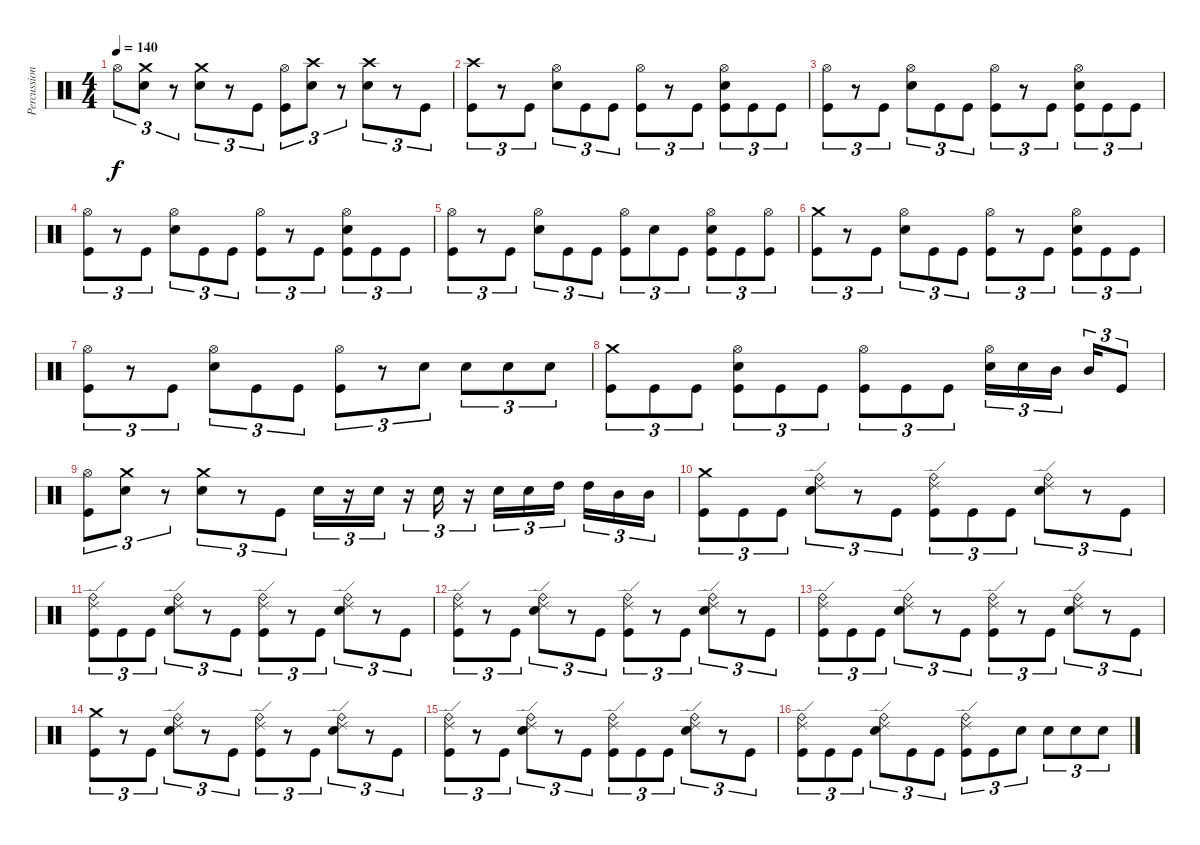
\track ("Percussion" "Percussion") {instrument percussion}
\staff {score}
\articulation defaults
\ts (4 4)
\tempo 140
\clef neutral
\ks c "Hi-Hat (open)".8{tu (3 2) dy f}
("Crash medium (hit)" "Snare (hit) 2").8{tu (3 2)} r.8{tu (3 2)} ("Crash medium (hit)" "Snare (hit) 2").8{tu (3 2)} r.8{tu (3 2)} "Kick (hit)".8{tu (3 2)} ("Hi-Hat (open)" "Kick (hit)").8{tu (3 2)} ("Crash high (hit)" "Snare (hit) 2").8{tu (3 2)} r.8{tu (3 2)} ("Crash high (hit)" "Snare (hit) 2").8{tu (3 2)} r.8{tu (3 2)} "Kick (hit)".8{tu (3 2)} |
("Crash high (hit)" "Kick (hit)").8{tu (3 2)} r.8{tu (3 2)} "Kick (hit)".8{tu (3 2)} ("Hi-Hat (open)" "Snare (hit) 2").8{tu (3 2)} "Kick (hit)".8{tu (3 2)} "Kick (hit)".8{tu (3 2)} ("Hi-Hat (open)" "Kick (hit)").8{tu (3 2)} r.8{tu (3 2)} "Kick (hit)".8{tu (3 2)} ("Hi-Hat (open)" "Snare (hit) 2" "Kick (hit)").8{tu (3 2)} "Kick (hit)".8{tu (3 2)} "Kick (hit)".8{tu (3 2)} |
("Hi-Hat (open)" "Kick (hit)").8{tu (3 2)} r.8{tu (3 2)} "Kick (hit)".8{tu (3 2)} ("Hi-Hat (open)" "Snare (hit) 2").8{tu (3 2)} "Kick (hit)".8{tu (3 2)} "Kick (hit)".8{tu (3 2)} ("Hi-Hat (open)" "Kick (hit)").8{tu (3 2)} r.8{tu (3 2)} "Kick (hit)".8{tu (3 2)} ("Hi-Hat (open)" "Snare (hit) 2" "Kick (hit)").8{tu (3 2)} "Kick (hit)".8{tu (3 2)} "Kick (hit)".8{tu (3 2)} |
("Hi-Hat (open)" "Kick (hit)").8{tu (3 2)} r.8{tu (3 2)} "Kick (hit)".8{tu (3 2)} ("Hi-Hat (open)" "Snare (hit) 2").8{tu (3 2)} "Kick (hit)".8{tu (3 2)} "Kick (hit)".8{tu (3 2)} ("Hi-Hat (open)" "Kick (hit)").8{tu (3 2)} r.8{tu (3 2)} "Kick (hit)".8{tu (3 2)} ("Hi-Hat (open)" "Snare (hit) 2" "Kick (hit)").8{tu (3 2)} "Kick (hit)".8{tu (3 2)} "Kick (hit)".8{tu (3 2)} |
("Hi-Hat (open)" "Kick (hit)").8{tu (3 2)} r.8{tu (3 2)} "Kick (hit)".8{tu (3 2)} ("Hi-Hat (open)" "Snare (hit) 2").8{tu (3 2)} "Kick (hit)".8{tu (3 2)} "Kick (hit)".8{tu (3 2)} ("Hi-Hat (open)" "Kick (hit)").8{tu (3 2)} "Snare (hit) 2".8{tu (3 2)} "Kick (hit)".8{tu (3 2)} ("Hi-Hat (open)" "Snare (hit) 2" "Kick (hit)").8{tu (3 2)} "Kick (hit)".8{tu (3 2)} ("Hi-Hat (open)" "Kick (hit)").8{tu (3 2)} |
("Crash medium (hit)" "Kick (hit)").8{tu (3 2)} r.8{tu (3 2)} "Kick (hit)".8{tu (3 2)} ("Hi-Hat (open)" "Snare (hit) 2").8{tu (3 2)} "Kick (hit)".8{tu (3 2)} "Kick (hit)".8{tu (3 2)} ("Hi-Hat (open)" "Kick (hit)").8{tu (3 2)} r.8{tu (3 2)} "Kick (hit)".8{tu (3 2)} ("Hi-Hat (open)" "Snare (hit) 2" "Kick (hit)").8{tu (3 2)} "Kick (hit)".8{tu (3 2)} "Kick (hit)".8{tu (3 2)} |
("Hi-Hat (open)" "Kick (hit)").8{tu (3 2)} r.8{tu (3 2)} "Kick (hit)".8{tu (3 2)} ("Hi-Hat (open)" "Snare (hit) 2").8{tu (3 2)} "Kick (hit)".8{tu (3 2)} "Kick (hit)".8{tu (3 2)} ("Hi-Hat (open)" "Kick (hit)").8{tu (3 2)} r.8{tu (3 2)} "Snare (hit) 2".8{tu (3 2)} "Snare (hit) 2".8{tu (3 2)} "Snare (hit) 2".8{tu (3 2)} "Snare (hit) 2".8{tu (3 2)} |
("Crash medium (hit)" "Kick (hit)").8{tu (3 2)} "Kick (hit)".8{tu (3 2)} "Kick (hit)".8{tu (3 2)} ("Hi-Hat (open)" "Snare (hit) 2" "Kick (hit)").8{tu (3 2)} "Kick (hit)".8{tu (3 2)} "Kick (hit)".8{tu (3 2)} ("Hi-Hat (open)" "Kick (hit)").8{tu (3 2)} "Kick (hit)".8{tu (3 2)} "Kick (hit)".8{tu (3 2)} ("Hi-Hat (open)" "Snare (hit) 2").16{tu (3 2)} "Snare (hit) 2".16{tu (3 2)} "Mid Tom (hit)".16{tu (3 2)} "Mid Tom (hit)".16{tu (3 2)} "Kick (hit)".8{tu (3 2)} |
("Hi-Hat (open)" "Kick (hit)").8{tu (3 2)} ("Crash medium (hit)" "Snare (hit) 2").8{tu (3 2)} r.8{tu (3 2)} ("Crash medium (hit)" "Snare (hit) 2").8{tu (3 2)} r.8{tu (3 2)} "Kick (hit)".8{tu (3 2)} "Snare (hit) 2".16{tu (3 2)} r.16{tu (3 2)} "Snare (hit) 2".16{tu (3 2)} r.16{tu (3 2)} "Snare (hit) 2".16{tu (3 2)} r.16{tu (3 2)} "Snare (hit) 2".16{tu (3 2)} "Snare (hit) 2".16{tu (3 2)} "High Tom (hit)".16{tu (3 2)} "High Tom (hit)".16{tu (3 2)} "Mid Tom (hit)".16{tu (3 2)} "Mid Tom (hit)".16{tu (3 2)} |
("Crash medium (hit)" "Kick (hit)").8{tu (3 2)} "Kick (hit)".8{tu (3 2)} "Kick (hit)".8{tu (3 2)} ("Ride (edge) 2" "Ride (bell)" "Snare (hit) 2").8{tu (3 2)} r.8{tu (3 2)} "Kick (hit)".8{tu (3 2)} ("Ride (edge) 2" "Ride (bell)" "Kick (hit)").8{tu (3 2)} "Kick (hit)".8{tu (3 2)} "Kick (hit)".8{tu (3 2)} ("Ride (edge) 2" "Ride (bell)" "Snare (hit) 2").8{tu (3 2)} r.8{tu (3 2)} "Kick (hit)".8{tu (3 2)} |
("Ride (edge) 2" "Ride (bell)" "Kick (hit)").8{tu (3 2)} "Kick (hit)".8{tu (3 2)} "Kick (hit)".8{tu (3 2)} ("Ride (edge) 2" "Ride (bell)" "Snare (hit) 2").8{tu (3 2)} r.8{tu (3 2)} "Kick (hit)".8{tu (3 2)} ("Ride (edge) 2" "Ride (bell)" "Kick (hit)").8{tu (3 2)} r.8{tu (3 2)} "Kick (hit)".8{tu (3 2)} ("Ride (edge) 2" "Ride (bell)" "Snare (hit) 2").8{tu (3 2)} r.8{tu (3 2)} "Kick (hit)".8{tu (3 2)} |
("Ride (edge) 2" "Ride (bell)" "Kick (hit)").8{tu (3 2)} r.8{tu (3 2)} "Kick (hit)".8{tu (3 2)} ("Ride (edge) 2" "Ride (bell)" "Snare (hit) 2").8{tu (3 2)} r.8{tu (3 2)} "Kick (hit)".8{tu (3 2)} ("Ride (edge) 2" "Ride (bell)" "Kick (hit)").8{tu (3 2)} r.8{tu (3 2)} "Kick (hit)".8{tu (3 2)} ("Ride (edge) 2" "Ride (bell)" "Snare (hit) 2").8{tu (3 2)} r.8{tu (3 2)} "Kick (hit)".8{tu (3 2)} |
("Ride (edge) 2" "Ride (bell)" "Kick (hit)").8{tu (3 2)} "Kick (hit)".8{tu (3 2)} "Kick (hit)".8{tu (3 2)} ("Ride (edge) 2" "Ride (bell)" "Snare (hit) 2").8{tu (3 2)} r.8{tu (3 2)} "Kick (hit)".8{tu (3 2)} ("Ride (edge) 2" "Ride (bell)" "Kick (hit)").8{tu (3 2)} r.8{tu (3 2)} "Kick (hit)".8{tu (3 2)} ("Ride (edge) 2" "Ride (bell)" "Snare (hit) 2").8{tu (3 2)} r.8{tu (3 2)} "Kick (hit)".8{tu (3 2)} |
("Crash medium (hit)" "Kick (hit)").8{tu (3 2)} r.8{tu (3 2)} "Kick (hit)".8{tu (3 2)} ("Ride (edge) 2" "Ride (bell)" "Snare (hit) 2").8{tu (3 2)} r.8{tu (3 2)} "Kick (hit)".8{tu (3 2)} ("Ride (edge) 2" "Ride (bell)" "Kick (hit)").8{tu (3 2)} r.8{tu (3 2)} "Kick (hit)".8{tu (3 2)} ("Ride (edge) 2" "Ride (bell)" "Snare (hit) 2").8{tu (3 2)} r.8{tu (3 2)} "Kick (hit)".8{tu (3 2)} |
("Ride (edge) 2" "Ride (bell)" "Kick (hit)").8{tu (3 2)} r.8{tu (3 2)} "Kick (hit)".8{tu (3 2)} ("Ride (edge) 2" "Ride (bell)" "Snare (hit) 2").8{tu (3 2)} r.8{tu (3 2)} "Kick (hit)".8{tu (3 2)} ("Ride (edge) 2" "Ride (bell)" "Kick (hit)").8{tu (3 2)} "Kick (hit)".8{tu (3 2)} "Kick (hit)".8{tu (3 2)} ("Ride (edge) 2" "Ride (bell)" "Snare (hit) 2").8{tu (3 2)} r.8{tu (3 2)} "Kick (hit)".8{tu (3 2)} |
("Ride (edge) 2" "Ride (bell)" "Kick (hit)").8{tu (3 2)} "Kick (hit)".8{tu (3 2)} "Kick (hit)".8{tu (3 2)} ("Ride (edge) 2" "Ride (bell)" "Snare (hit) 2").8{tu (3 2)} "Kick (hit)".8{tu (3 2)} "Kick (hit)".8{tu (3 2)} ("Ride (edge) 2" "Ride (bell)" "Kick (hit)").8{tu (3 2)} "Kick (hit)".8{tu (3 2)} "Snare (hit) 2".8{tu (3 2)} "Snare (hit) 2".8{tu (3 2)} "Snare (hit) 2".8{tu (3 2)} "Snare (hit) 2".8{tu (3 2)}
